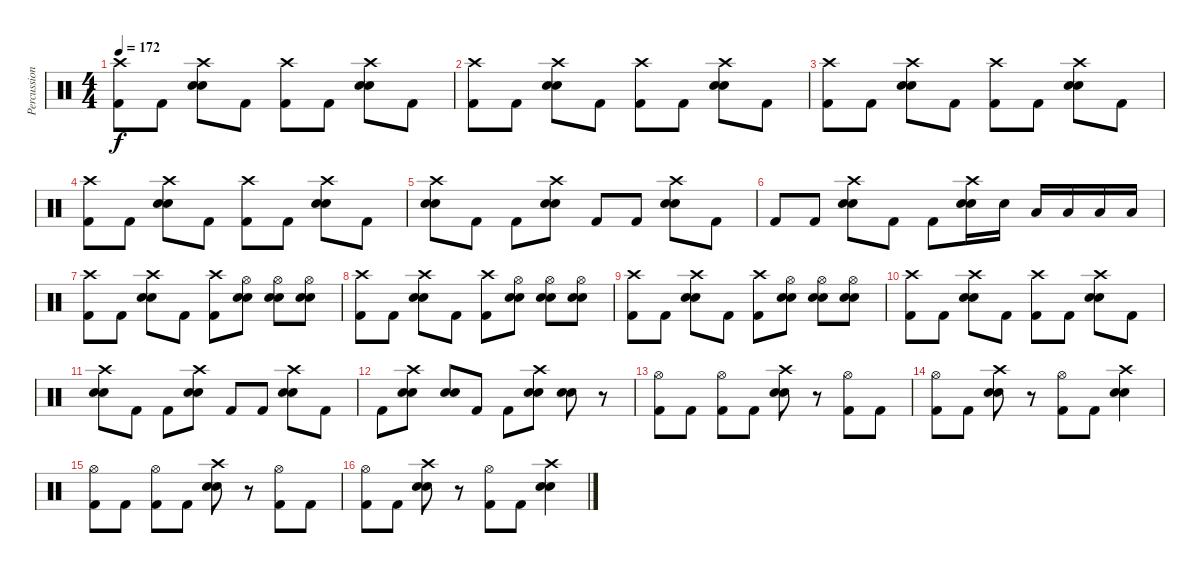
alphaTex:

\track ("Percussion" "Percussion") {instrument percussion}
\staff {score}
\articulation defaults
\ts (4 4)
\tempo 172
\clef neutral
\ks c
("Crash high (hit)" "Kick (hit) 2").8{dy f} "Kick (hit) 2".8 ("Crash high (hit)" "Snare (hit) 2" "Electric Snare (hit)").8 "Kick (hit) 2".8 ("Crash high (hit)" "Kick (hit) 2").8 "Kick (hit) 2".8 ("Crash high (hit)" "Snare (hit) 2" "Electric Snare (hit)").8 "Kick (hit) 2".8 |
("Crash high (hit)" "Kick (hit) 2").8 "Kick (hit) 2".8 ("Crash high (hit)" "Snare (hit) 2" "Electric Snare (hit)").8 "Kick (hit) 2".8 ("Crash high (hit)" "Kick (hit) 2").8 "Kick (hit) 2".8 ("Crash high (hit)" "Snare (hit) 2" "Electric Snare (hit)").8 "Kick (hit) 2".8 |
("Crash high (hit)" "Kick (hit) 2").8 "Kick (hit) 2".8 ("Crash high (hit)" "Snare (hit) 2" "Electric Snare (hit)").8 "Kick (hit) 2".8 ("Crash high (hit)" "Kick (hit) 2").8 "Kick (hit) 2".8 ("Crash high (hit)" "Snare (hit) 2" "Electric Snare (hit)").8 "Kick (hit) 2".8 |
("Crash high (hit)" "Kick (hit) 2").8 "Kick (hit) 2".8 ("Crash high (hit)" "Snare (hit) 2" "Electric Snare (hit)").8 "Kick (hit) 2".8 ("Crash high (hit)" "Kick (hit) 2").8 "Kick (hit) 2".8 ("Crash high (hit)" "Snare (hit) 2" "Electric Snare (hit)").8 "Kick (hit) 2".8 |
("Crash high (hit)" "Snare (hit) 2" "Electric Snare (hit)").8 "Kick (hit) 2".8 "Kick (hit) 2".8 ("Crash high (hit)" "Snare (hit) 2" "Electric Snare (hit)").8 "Kick (hit) 2".8 "Kick (hit) 2".8 ("Crash high (hit)" "Snare (hit) 2" "Electric Snare (hit)").8 "Kick (hit) 2".8 |
"Kick (hit) 2".8 "Kick (hit) 2".8 ("Crash high (hit)" "Snare (hit) 2" "Electric Snare (hit)").8 "Kick (hit) 2".8 "Kick (hit) 2".8 ("Crash high (hit)" "Snare (hit) 2" "Electric Snare (hit)").16 "Electric Snare (hit)".16 "Low Tom (hit)".16 "Low Tom (hit)".16 "Low Floor Tom (hit)".16 "Low Floor Tom (hit)".16 |
("Crash high (hit)" "Kick (hit) 2").8 "Kick (hit) 2".8 ("Crash high (hit)" "Snare (hit) 2" "Electric Snare (hit)").8 "Kick (hit) 2".8 ("Crash high (hit)" "Kick (hit) 2").8 ("Hi-Hat (open)" "Snare (hit) 2" "Electric Snare (hit)").8 ("Hi-Hat (open)" "Snare (hit) 2" "Electric Snare (hit)").8 ("Hi-Hat (open)" "Snare (hit) 2" "Electric Snare (hit)").8 |
("Crash high (hit)" "Kick (hit) 2").8 "Kick (hit) 2".8 ("Crash high (hit)" "Snare (hit) 2" "Electric Snare (hit)").8 "Kick (hit) 2".8 ("Crash high (hit)" "Kick (hit) 2").8 ("Hi-Hat (open)" "Snare (hit) 2" "Electric Snare (hit)").8 ("Hi-Hat (open)" "Snare (hit) 2" "Electric Snare (hit)").8 ("Hi-Hat (open)" "Snare (hit) 2" "Electric Snare (hit)").8 |
("Crash high (hit)" "Kick (hit) 2").8 "Kick (hit) 2".8 ("Crash high (hit)" "Snare (hit) 2" "Electric Snare (hit)").8 "Kick (hit) 2".8 ("Crash high (hit)" "Kick (hit) 2").8 ("Hi-Hat (open)" "Snare (hit) 2" "Electric Snare (hit)").8 ("Hi-Hat (open)" "Snare (hit) 2" "Electric Snare (hit)").8 ("Hi-Hat (open)" "Snare (hit) 2" "Electric Snare (hit)").8 |
("Crash high (hit)" "Kick (hit) 2").8 "Kick (hit) 2".8 ("Crash high (hit)" "Snare (hit) 2" "Electric Snare (hit)").8 "Kick (hit) 2".8 ("Crash high (hit)" "Kick (hit) 2").8 "Kick (hit) 2".8 ("Crash high (hit)" "Snare (hit) 2" "Electric Snare (hit)").8 "Kick (hit) 2".8 |
("Crash high (hit)" "Snare (hit) 2" "Electric Snare (hit)").8 "Kick (hit) 2".8 "Kick (hit) 2".8 ("Crash high (hit)" "Snare (hit) 2" "Electric Snare (hit)").8 "Kick (hit) 2".8 "Kick (hit) 2".8 ("Crash high (hit)" "Snare (hit) 2" "Electric Snare (hit)").8 "Kick (hit) 2".8 |
"Kick (hit) 2".8 ("Crash high (hit)" "Snare (hit) 2" "Electric Snare (hit)").8 ("Snare (hit) 2" "Electric Snare (hit)").8 "Kick (hit) 2".8 "Kick (hit) 2".8 ("Crash high (hit)" "Snare (hit) 2" "Electric Snare (hit)").8 ("Snare (hit) 2" "Electric Snare (hit)").8 r.8 |
("Hi-Hat (open)" "Kick (hit) 2").8 "Kick (hit) 2".8 ("Hi-Hat (open)" "Kick (hit) 2").8 "Kick (hit) 2".8 ("Crash high (hit)" "Snare (hit) 2" "Electric Snare (hit)").8 r.8 ("Hi-Hat (open)" "Kick (hit) 2").8 "Kick (hit) 2".8 |
("Hi-Hat (open)" "Kick (hit) 2").8 "Kick (hit) 2".8 ("Crash high (hit)" "Snare (hit) 2" "Electric Snare (hit)").8 r.8 ("Hi-Hat (open)" "Kick (hit) 2").8 "Kick (hit) 2".8 ("Crash high (hit)" "Snare (hit) 2" "Electric Snare (hit)").4 |
("Hi-Hat (open)" "Kick (hit) 2").8 "Kick (hit) 2".8 ("Hi-Hat (open)" "Kick (hit) 2").8 "Kick (hit) 2".8 ("Crash high (hit)" "Snare (hit) 2" "Electric Snare (hit)").8 r.8 ("Hi-Hat (open)" "Kick (hit) 2").8 "Kick (hit) 2".8 |
("Hi-Hat (open)" "Kick (hit) 2").8 "Kick (hit) 2".8 ("Crash high (hit)" "Snare (hit) 2" "Electric Snare (hit)").8 r.8 ("Hi-Hat (open)" "Kick (hit) 2").8 "Kick (hit) 2".8 ("Crash high (hit)" "Snare (hit) 2" "Electric Snare (hit)").4
